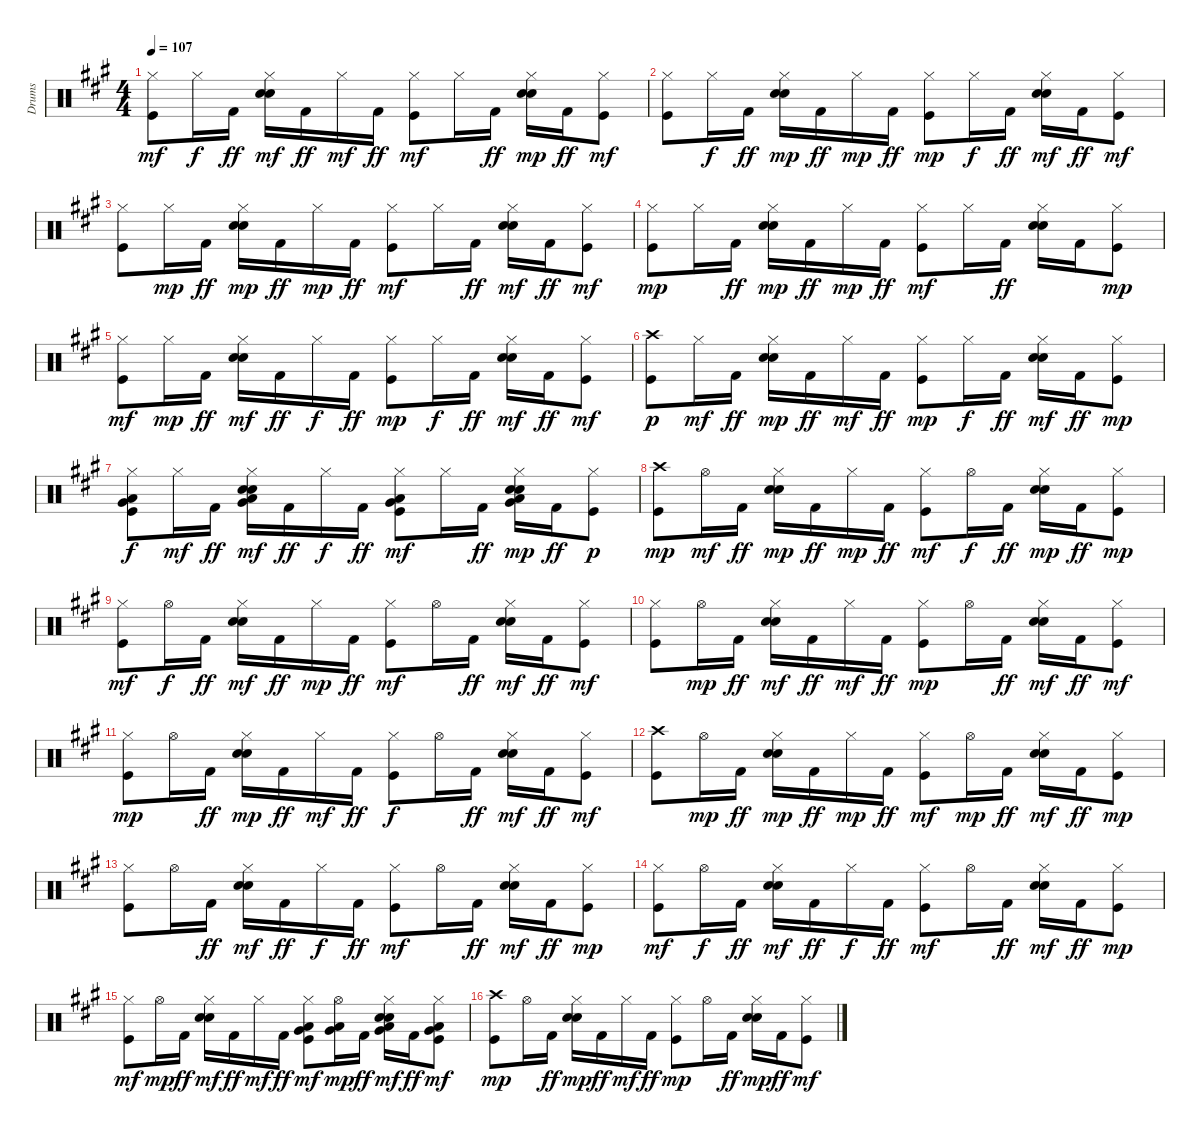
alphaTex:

\track ("Drums" "Drums") {instrument percussion}
\staff {score}
\articulation defaults
\ts (4 4)
\tempo 107
\clef neutral
\ks a
("Kick (hit)" "Hi-Hat (closed)").8{dy mf} "Hi-Hat (closed)".16{dy f} "Kick (hit) 2".16{dy ff} ("Snare (hit) 2" "Hand Clap (hit)" "Hi-Hat (closed)").16{dy mf} "Kick (hit) 2".16{dy ff} "Hi-Hat (closed)".16{dy mf} "Kick (hit) 2".16{dy ff} ("Kick (hit)" "Hi-Hat (closed)").8{dy mf} "Hi-Hat (closed)".16 "Kick (hit) 2".16{dy ff} ("Snare (hit) 2" "Hand Clap (hit)" "Hi-Hat (closed)").16{dy mp} "Kick (hit) 2".16{dy ff} ("Kick (hit)" "Hi-Hat (closed)").8{dy mf} |
("Kick (hit)" "Hi-Hat (closed)").8 "Hi-Hat (closed)".16{dy f} "Kick (hit) 2".16{dy ff} ("Snare (hit) 2" "Hand Clap (hit)" "Hi-Hat (closed)").16{dy mp} "Kick (hit) 2".16{dy ff} "Hi-Hat (closed)".16{dy mp} "Kick (hit) 2".16{dy ff} ("Kick (hit)" "Hi-Hat (closed)").8{dy mp} "Hi-Hat (closed)".16{dy f} "Kick (hit) 2".16{dy ff} ("Snare (hit) 2" "Hand Clap (hit)" "Hi-Hat (closed)").16{dy mf} "Kick (hit) 2".16{dy ff} ("Kick (hit)" "Hi-Hat (closed)").8{dy mf} |
("Kick (hit)" "Hi-Hat (closed)").8 "Hi-Hat (closed)".16{dy mp} "Kick (hit) 2".16{dy ff} ("Snare (hit) 2" "Hand Clap (hit)" "Hi-Hat (closed)").16{dy mp} "Kick (hit) 2".16{dy ff} "Hi-Hat (closed)".16{dy mp} "Kick (hit) 2".16{dy ff} ("Kick (hit)" "Hi-Hat (closed)").8{dy mf} "Hi-Hat (closed)".16 "Kick (hit) 2".16{dy ff} ("Snare (hit) 2" "Hand Clap (hit)" "Hi-Hat (closed)").16{dy mf} "Kick (hit) 2".16{dy ff} ("Kick (hit)" "Hi-Hat (closed)").8{dy mf} |
("Kick (hit)" "Hi-Hat (closed)").8{dy mp} "Hi-Hat (closed)".16 "Kick (hit) 2".16{dy ff} ("Snare (hit) 2" "Hand Clap (hit)" "Hi-Hat (closed)").16{dy mp} "Kick (hit) 2".16{dy ff} "Hi-Hat (closed)".16{dy mp} "Kick (hit) 2".16{dy ff} ("Kick (hit)" "Hi-Hat (closed)").8{dy mf} "Hi-Hat (closed)".16 "Kick (hit) 2".16{dy ff} ("Snare (hit) 2" "Hand Clap (hit)" "Hi-Hat (closed)").16 "Kick (hit) 2".16 ("Kick (hit)" "Hi-Hat (closed)").8{dy mp} |
("Kick (hit)" "Hi-Hat (closed)").8{dy mf} "Hi-Hat (closed)".16{dy mp} "Kick (hit) 2".16{dy ff} ("Snare (hit) 2" "Hand Clap (hit)" "Hi-Hat (closed)").16{dy mf} "Kick (hit) 2".16{dy ff} "Hi-Hat (closed)".16{dy f} "Kick (hit) 2".16{dy ff} ("Kick (hit)" "Hi-Hat (closed)").8{dy mp} "Hi-Hat (closed)".16{dy f} "Kick (hit) 2".16{dy ff} ("Snare (hit) 2" "Hand Clap (hit)" "Hi-Hat (closed)").16{dy mf} "Kick (hit) 2".16{dy ff} ("Kick (hit)" "Hi-Hat (closed)").8{dy mf} |
("Kick (hit)" "Crash high (hit)").8{dy p} "Hi-Hat (closed)".16{dy mf} "Kick (hit) 2".16{dy ff} ("Snare (hit) 2" "Hand Clap (hit)" "Hi-Hat (closed)").16{dy mp} "Kick (hit) 2".16{dy ff} "Hi-Hat (closed)".16{dy mf} "Kick (hit) 2".16{dy ff} ("Kick (hit)" "Hi-Hat (closed)").8{dy mp} "Hi-Hat (closed)".16{dy f} "Kick (hit) 2".16{dy ff} ("Snare (hit) 2" "Hand Clap (hit)" "Hi-Hat (closed)").16{dy mf} "Kick (hit) 2".16{dy ff} ("Kick (hit)" "Hi-Hat (closed)").8{dy mp} |
("Kick (hit)" "Low Floor Tom (hit)" "Hi-Hat (closed)" "Very Low Tom (hit)").8{dy f} "Hi-Hat (closed)".16{dy mf} "Kick (hit) 2".16{dy ff} ("Snare (hit) 2" "Hand Clap (hit)" "Low Floor Tom (hit)" "Hi-Hat (closed)" "Very Low Tom (hit)").16{dy mf} "Kick (hit) 2".16{dy ff} "Hi-Hat (closed)".16{dy f} "Kick (hit) 2".16{dy ff} ("Kick (hit)" "Low Floor Tom (hit)" "Hi-Hat (closed)" "Very Low Tom (hit)").8{dy mf} "Hi-Hat (closed)".16 "Kick (hit) 2".16{dy ff} ("Snare (hit) 2" "Hand Clap (hit)" "Low Floor Tom (hit)" "Hi-Hat (closed)" "Very Low Tom (hit)").16{dy mp} "Kick (hit) 2".16{dy ff} ("Kick (hit)" "Hi-Hat (closed)").8{dy p} |
("Kick (hit)" "Crash high (hit)").8{dy mp} "Hi-Hat (open)".16{dy mf} "Kick (hit) 2".16{dy ff} ("Snare (hit) 2" "Hand Clap (hit)" "Hi-Hat (closed)").16{dy mp} "Kick (hit) 2".16{dy ff} "Hi-Hat (closed)".16{dy mp} "Kick (hit) 2".16{dy ff} ("Kick (hit)" "Hi-Hat (closed)").8{dy mf} "Hi-Hat (open)".16{dy f} "Kick (hit) 2".16{dy ff} ("Snare (hit) 2" "Hand Clap (hit)" "Hi-Hat (closed)").16{dy mp} "Kick (hit) 2".16{dy ff} ("Kick (hit)" "Hi-Hat (closed)").8{dy mp} |
("Kick (hit)" "Hi-Hat (closed)").8{dy mf} "Hi-Hat (open)".16{dy f} "Kick (hit) 2".16{dy ff} ("Snare (hit) 2" "Hand Clap (hit)" "Hi-Hat (closed)").16{dy mf} "Kick (hit) 2".16{dy ff} "Hi-Hat (closed)".16{dy mp} "Kick (hit) 2".16{dy ff} ("Kick (hit)" "Hi-Hat (closed)").8{dy mf} "Hi-Hat (open)".16 "Kick (hit) 2".16{dy ff} ("Snare (hit) 2" "Hand Clap (hit)" "Hi-Hat (closed)").16{dy mf} "Kick (hit) 2".16{dy ff} ("Kick (hit)" "Hi-Hat (closed)").8{dy mf} |
("Kick (hit)" "Hi-Hat (closed)").8 "Hi-Hat (open)".16{dy mp} "Kick (hit) 2".16{dy ff} ("Snare (hit) 2" "Hand Clap (hit)" "Hi-Hat (closed)").16{dy mf} "Kick (hit) 2".16{dy ff} "Hi-Hat (closed)".16{dy mf} "Kick (hit) 2".16{dy ff} ("Kick (hit)" "Hi-Hat (closed)").8{dy mp} "Hi-Hat (open)".16 "Kick (hit) 2".16{dy ff} ("Snare (hit) 2" "Hand Clap (hit)" "Hi-Hat (closed)").16{dy mf} "Kick (hit) 2".16{dy ff} ("Kick (hit)" "Hi-Hat (closed)").8{dy mf} |
("Kick (hit)" "Hi-Hat (closed)").8{dy mp} "Hi-Hat (open)".16 "Kick (hit) 2".16{dy ff} ("Snare (hit) 2" "Hand Clap (hit)" "Hi-Hat (closed)").16{dy mp} "Kick (hit) 2".16{dy ff} "Hi-Hat (closed)".16{dy mf} "Kick (hit) 2".16{dy ff} ("Kick (hit)" "Hi-Hat (closed)").8{dy f} "Hi-Hat (open)".16 "Kick (hit) 2".16{dy ff} ("Snare (hit) 2" "Hand Clap (hit)" "Hi-Hat (closed)").16{dy mf} "Kick (hit) 2".16{dy ff} ("Kick (hit)" "Hi-Hat (closed)").8{dy mf} |
("Kick (hit)" "Crash high (hit)").8 "Hi-Hat (open)".16{dy mp} "Kick (hit) 2".16{dy ff} ("Snare (hit) 2" "Hand Clap (hit)" "Hi-Hat (closed)").16{dy mp} "Kick (hit) 2".16{dy ff} "Hi-Hat (closed)".16{dy mp} "Kick (hit) 2".16{dy ff} ("Kick (hit)" "Hi-Hat (closed)").8{dy mf} "Hi-Hat (open)".16{dy mp} "Kick (hit) 2".16{dy ff} ("Snare (hit) 2" "Hand Clap (hit)" "Hi-Hat (closed)").16{dy mf} "Kick (hit) 2".16{dy ff} ("Kick (hit)" "Hi-Hat (closed)").8{dy mp} |
("Kick (hit)" "Hi-Hat (closed)").8 "Hi-Hat (open)".16 "Kick (hit) 2".16{dy ff} ("Snare (hit) 2" "Hand Clap (hit)" "Hi-Hat (closed)").16{dy mf} "Kick (hit) 2".16{dy ff} "Hi-Hat (closed)".16{dy f} "Kick (hit) 2".16{dy ff} ("Kick (hit)" "Hi-Hat (closed)").8{dy mf} "Hi-Hat (open)".16 "Kick (hit) 2".16{dy ff} ("Snare (hit) 2" "Hand Clap (hit)" "Hi-Hat (closed)").16{dy mf} "Kick (hit) 2".16{dy ff} ("Kick (hit)" "Hi-Hat (closed)").8{dy mp} |
("Kick (hit)" "Hi-Hat (closed)").8{dy mf} "Hi-Hat (open)".16{dy f} "Kick (hit) 2".16{dy ff} ("Snare (hit) 2" "Hand Clap (hit)" "Hi-Hat (closed)").16{dy mf} "Kick (hit) 2".16{dy ff} "Hi-Hat (closed)".16{dy f} "Kick (hit) 2".16{dy ff} ("Kick (hit)" "Hi-Hat (closed)").8{dy mf} "Hi-Hat (open)".16 "Kick (hit) 2".16{dy ff} ("Snare (hit) 2" "Hand Clap (hit)" "Hi-Hat (closed)").16{dy mf} "Kick (hit) 2".16{dy ff} ("Kick (hit)" "Hi-Hat (closed)").8{dy mp} |
("Kick (hit)" "Hi-Hat (closed)").8{dy mf} "Hi-Hat (open)".16{dy mp} "Kick (hit) 2".16{dy ff} ("Snare (hit) 2" "Hand Clap (hit)" "Hi-Hat (closed)").16{dy mf} "Kick (hit) 2".16{dy ff} "Hi-Hat (closed)".16{dy mf} "Kick (hit) 2".16{dy ff} ("Kick (hit)" "Low Floor Tom (hit)" "Hi-Hat (closed)" "Very Low Tom (hit)").8{dy mf} ("Low Floor Tom (hit)" "Very Low Tom (hit)" "Hi-Hat (open)").16{dy mp} "Kick (hit) 2".16{dy ff} ("Snare (hit) 2" "Hand Clap (hit)" "Low Floor Tom (hit)" "Hi-Hat (closed)" "Very Low Tom (hit)").16{dy mf} "Kick (hit) 2".16{dy ff} ("Kick (hit)" "Low Floor Tom (hit)" "Hi-Hat (closed)" "Very Low Tom (hit)").8{dy mf} |
("Kick (hit)" "Crash high (hit)").8{dy mp} "Hi-Hat (open)".16 "Kick (hit) 2".16{dy ff} ("Snare (hit) 2" "Hand Clap (hit)" "Hi-Hat (closed)").16{dy mp} "Kick (hit) 2".16{dy ff} "Hi-Hat (closed)".16{dy mf} "Kick (hit) 2".16{dy ff} ("Kick (hit)" "Hi-Hat (closed)").8{dy mp} "Hi-Hat (open)".16 "Kick (hit) 2".16{dy ff} ("Snare (hit) 2" "Hand Clap (hit)" "Hi-Hat (closed)").16{dy mp} "Kick (hit) 2".16{dy ff} ("Kick (hit)" "Hi-Hat (closed)").8{dy mf}
